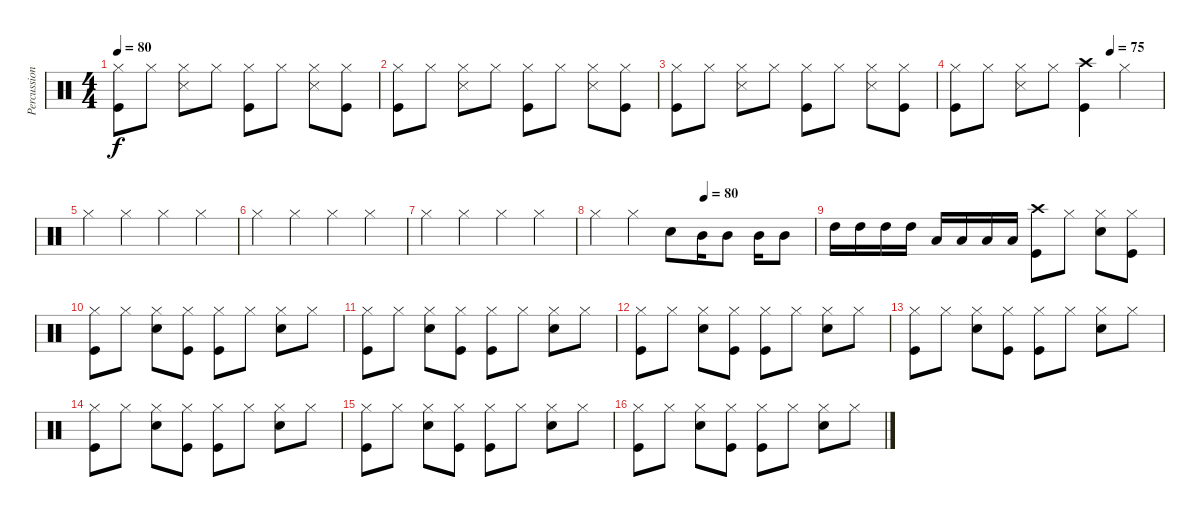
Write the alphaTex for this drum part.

\track ("Percussion" "Percussion") {instrument percussion}
\staff {score}
\articulation defaults
\ts (4 4)
\tempo 80
\clef neutral
\ks c
("Hi-Hat (closed)" "Kick (hit)").8{dy f} "Hi-Hat (closed)".8 ("Hi-Hat (closed)" "Snare (side stick) 3").8 "Hi-Hat (closed)".8 ("Hi-Hat (closed)" "Kick (hit)").8 "Hi-Hat (closed)".8 ("Hi-Hat (closed)" "Snare (side stick) 3").8 ("Hi-Hat (closed)" "Kick (hit)").8 |
("Hi-Hat (closed)" "Kick (hit)").8 "Hi-Hat (closed)".8 ("Hi-Hat (closed)" "Snare (side stick) 3").8 "Hi-Hat (closed)".8 ("Hi-Hat (closed)" "Kick (hit)").8 "Hi-Hat (closed)".8 ("Hi-Hat (closed)" "Snare (side stick) 3").8 ("Hi-Hat (closed)" "Kick (hit)").8 |
("Hi-Hat (closed)" "Kick (hit)").8 "Hi-Hat (closed)".8 ("Hi-Hat (closed)" "Snare (side stick) 3").8 "Hi-Hat (closed)".8 ("Hi-Hat (closed)" "Kick (hit)").8 "Hi-Hat (closed)".8 ("Hi-Hat (closed)" "Snare (side stick) 3").8 ("Hi-Hat (closed)" "Kick (hit)").8 |
\tempo (75 0.75)
("Hi-Hat (closed)" "Kick (hit)").8 "Hi-Hat (closed)".8 ("Hi-Hat (closed)" "Snare (side stick) 3").8 "Hi-Hat (closed)".8 ("Crash high (hit)" "Kick (hit)").4 "Hi-Hat (closed)".4 |
"Hi-Hat (closed)".4 "Hi-Hat (closed)".4 "Hi-Hat (closed)".4 "Hi-Hat (closed)".4 |
"Hi-Hat (closed)".4 "Hi-Hat (closed)".4 "Hi-Hat (closed)".4 "Hi-Hat (closed)".4 |
"Hi-Hat (closed)".4 "Hi-Hat (closed)".4 "Hi-Hat (closed)".4 "Hi-Hat (closed)".4 |
\tempo (80 0.5)
"Hi-Hat (closed)".4 "Hi-Hat (closed)".4 "Electric Snare (hit)".8 "Mid Tom (hit)".16 "Mid Tom (hit)".8 "Mid Tom (hit)".16 "Mid Tom (hit)".8 |
"High Tom (hit)".16 "High Tom (hit)".16 "High Tom (hit)".16 "High Tom (hit)".16 "Low Tom (hit)".16 "Low Tom (hit)".16 "Low Tom (hit)".16 "Low Tom (hit)".16 ("Crash high (hit)" "Kick (hit)").8 "Hi-Hat (closed)".8 ("Hi-Hat (closed)" "Electric Snare (hit)").8 ("Hi-Hat (closed)" "Kick (hit)").8 |
("Hi-Hat (closed)" "Kick (hit)").8 "Hi-Hat (closed)".8 ("Hi-Hat (closed)" "Electric Snare (hit)").8 ("Hi-Hat (closed)" "Kick (hit)").8 ("Hi-Hat (closed)" "Kick (hit)").8 "Hi-Hat (closed)".8 ("Hi-Hat (closed)" "Electric Snare (hit)").8 "Hi-Hat (closed)".8 |
("Hi-Hat (closed)" "Kick (hit)").8 "Hi-Hat (closed)".8 ("Hi-Hat (closed)" "Electric Snare (hit)").8 ("Hi-Hat (closed)" "Kick (hit)").8 ("Hi-Hat (closed)" "Kick (hit)").8 "Hi-Hat (closed)".8 ("Hi-Hat (closed)" "Electric Snare (hit)").8 "Hi-Hat (closed)".8 |
("Hi-Hat (closed)" "Kick (hit)").8 "Hi-Hat (closed)".8 ("Hi-Hat (closed)" "Electric Snare (hit)").8 ("Hi-Hat (closed)" "Kick (hit)").8 ("Hi-Hat (closed)" "Kick (hit)").8 "Hi-Hat (closed)".8 ("Hi-Hat (closed)" "Electric Snare (hit)").8 "Hi-Hat (closed)".8 |
("Hi-Hat (closed)" "Kick (hit)").8 "Hi-Hat (closed)".8 ("Hi-Hat (closed)" "Electric Snare (hit)").8 ("Hi-Hat (closed)" "Kick (hit)").8 ("Hi-Hat (closed)" "Kick (hit)").8 "Hi-Hat (closed)".8 ("Hi-Hat (closed)" "Electric Snare (hit)").8 "Hi-Hat (closed)".8 |
("Hi-Hat (closed)" "Kick (hit)").8 "Hi-Hat (closed)".8 ("Hi-Hat (closed)" "Electric Snare (hit)").8 ("Hi-Hat (closed)" "Kick (hit)").8 ("Hi-Hat (closed)" "Kick (hit)").8 "Hi-Hat (closed)".8 ("Hi-Hat (closed)" "Electric Snare (hit)").8 "Hi-Hat (closed)".8 |
("Hi-Hat (closed)" "Kick (hit)").8 "Hi-Hat (closed)".8 ("Hi-Hat (closed)" "Electric Snare (hit)").8 ("Hi-Hat (closed)" "Kick (hit)").8 ("Hi-Hat (closed)" "Kick (hit)").8 "Hi-Hat (closed)".8 ("Hi-Hat (closed)" "Electric Snare (hit)").8 "Hi-Hat (closed)".8 |
("Hi-Hat (closed)" "Kick (hit)").8 "Hi-Hat (closed)".8 ("Hi-Hat (closed)" "Electric Snare (hit)").8 ("Hi-Hat (closed)" "Kick (hit)").8 ("Hi-Hat (closed)" "Kick (hit)").8 "Hi-Hat (closed)".8 ("Hi-Hat (closed)" "Electric Snare (hit)").8 "Hi-Hat (closed)".8
